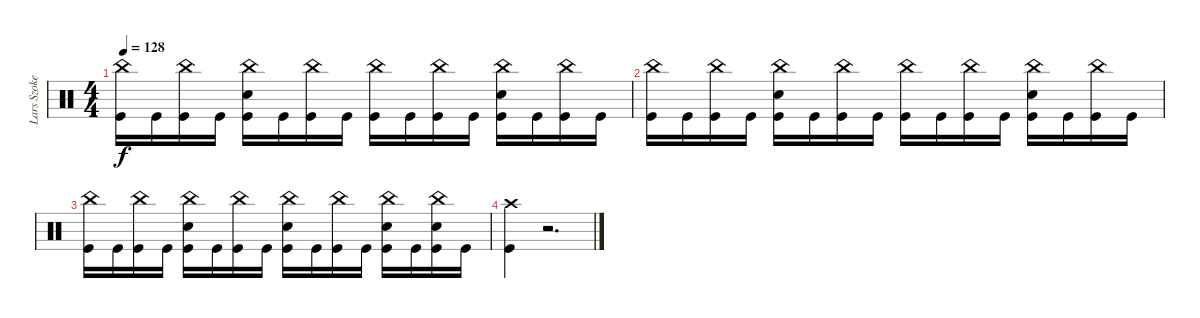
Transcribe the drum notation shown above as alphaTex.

\track ("Lars Szoke" "Lars Szoke") {instrument percussion}
\staff {score}
\articulation defaults
\ts (4 4)
\tempo 128
\clef neutral
\ks c
("China (hit)" "Kick (hit)").16{dy f} "Kick (hit)".16 ("China (hit)" "Kick (hit)").16 "Kick (hit)".16 ("China (hit)" "Snare (hit) 2" "Kick (hit)").16 "Kick (hit)".16 ("China (hit)" "Kick (hit)").16 "Kick (hit)".16 ("China (hit)" "Kick (hit)").16 "Kick (hit)".16 ("China (hit)" "Kick (hit)").16 "Kick (hit)".16 ("China (hit)" "Snare (hit) 2" "Kick (hit)").16 "Kick (hit)".16 ("China (hit)" "Kick (hit)").16 "Kick (hit)".16 |
("China (hit)" "Kick (hit)").16 "Kick (hit)".16 ("China (hit)" "Kick (hit)").16 "Kick (hit)".16 ("China (hit)" "Snare (hit) 2" "Kick (hit)").16 "Kick (hit)".16 ("China (hit)" "Kick (hit)").16 "Kick (hit)".16 ("China (hit)" "Kick (hit)").16 "Kick (hit)".16 ("China (hit)" "Kick (hit)").16 "Kick (hit)".16 ("China (hit)" "Snare (hit) 2" "Kick (hit)").16 "Kick (hit)".16 ("China (hit)" "Kick (hit)").16 "Kick (hit)".16 |
("China (hit)" "Kick (hit)").16 "Kick (hit)".16 ("China (hit)" "Kick (hit)").16 "Kick (hit)".16 ("China (hit)" "Snare (hit) 2" "Kick (hit)").16 "Kick (hit)".16 ("China (hit)" "Kick (hit)").16 "Kick (hit)".16 ("China (hit)" "Snare (hit) 2" "Kick (hit)").16 "Kick (hit)".16 ("China (hit)" "Kick (hit)").16 "Kick (hit)".16 ("China (hit)" "Snare (hit) 2" "Kick (hit)").16 "Kick (hit)".16 ("China (hit)" "Snare (hit) 2" "Kick (hit)").16 "Kick (hit)".16 |
("Crash high (hit)" "Kick (hit)").4 r.2{d}
